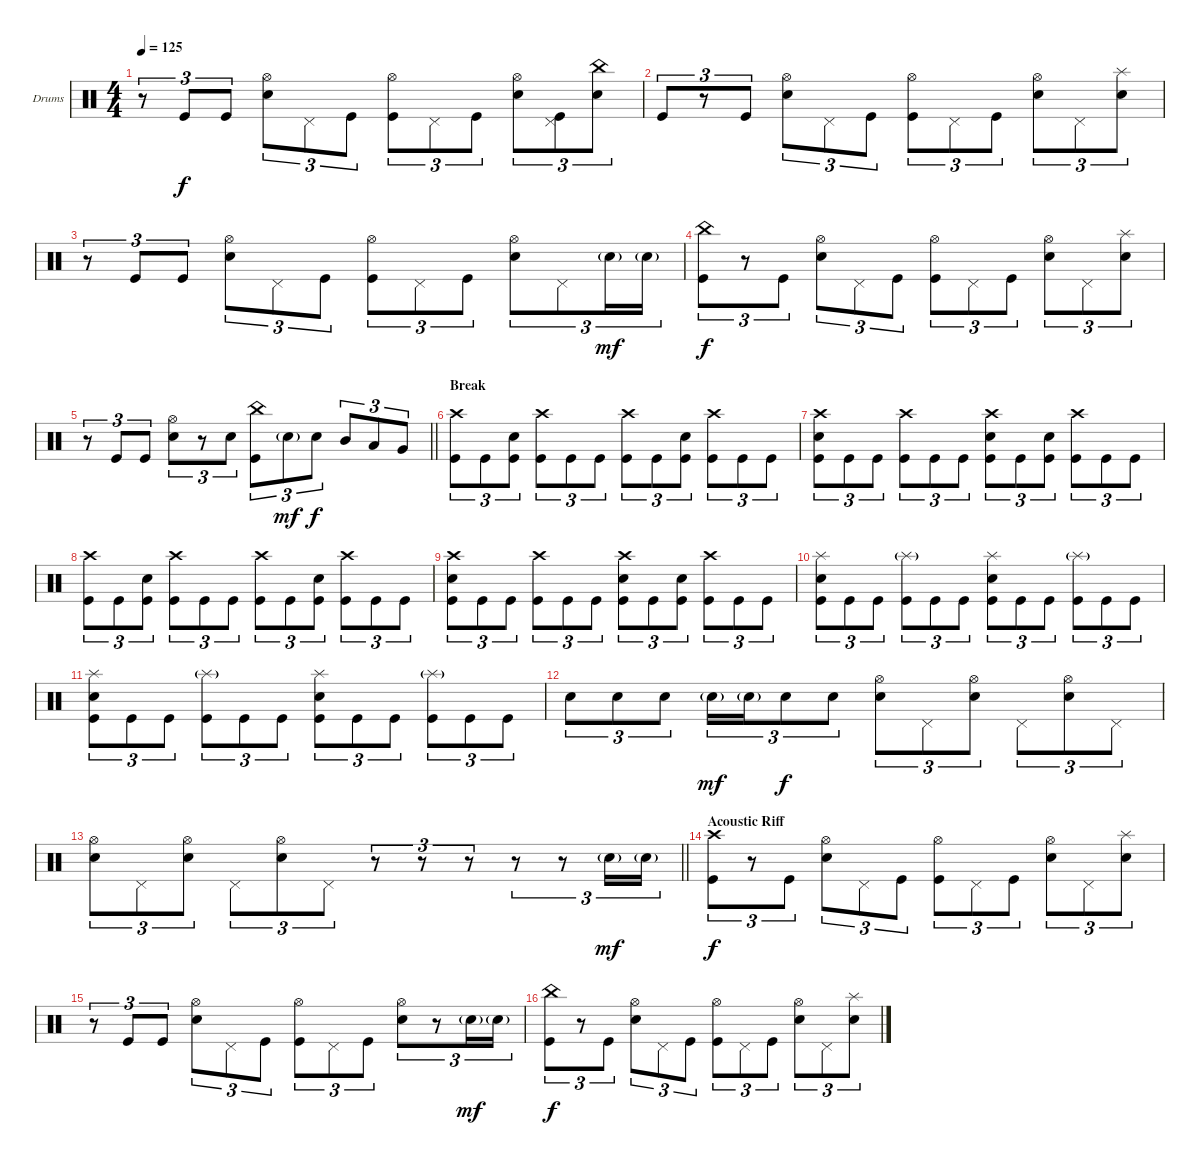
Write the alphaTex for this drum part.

\bracketExtendMode nobrackets
\firstSystemTrackNameOrientation horizontal
\otherSystemsTrackNameOrientation horizontal
\track ("Drumkit" "Drums") {instrument percussion}
\staff {score}
\articulation defaults
\ts (4 4)
\tempo 125
\clef neutral
\ks c
r.8{tu (3 2) dy f} "Kick (hit)".8{tu (3 2)} "Kick (hit)".8{tu (3 2)} ("Hi-Hat (open)" "Snare (hit) 2").8{tu (3 2)} "Pedal Hi-Hat (hit)".8{tu (3 2)} "Kick (hit)".8{tu (3 2)} ("Hi-Hat (open)" "Kick (hit)").8{tu (3 2)} "Pedal Hi-Hat (hit)".8{tu (3 2)} "Kick (hit)".8{tu (3 2)} ("Hi-Hat (open)" "Snare (hit) 2").8{tu (3 2)} ("Pedal Hi-Hat (hit)" "Kick (hit)").8{tu (3 2)} ("China (hit)" "Snare (hit) 2").8{tu (3 2)} |
"Kick (hit)".8{tu (3 2)} r.8{tu (3 2)} "Kick (hit)".8{tu (3 2)} ("Hi-Hat (open)" "Snare (hit) 2").8{tu (3 2)} "Pedal Hi-Hat (hit)".8{tu (3 2)} "Kick (hit)".8{tu (3 2)} ("Hi-Hat (open)" "Kick (hit)").8{tu (3 2)} "Pedal Hi-Hat (hit)".8{tu (3 2)} "Kick (hit)".8{tu (3 2)} ("Hi-Hat (open)" "Snare (hit) 2").8{tu (3 2)} "Pedal Hi-Hat (hit)".8{tu (3 2)} ("Splash (hit)" "Snare (hit) 2").8{tu (3 2)} |
r.8{tu (3 2)} "Kick (hit)".8{tu (3 2)} "Kick (hit)".8{tu (3 2)} ("Hi-Hat (open)" "Snare (hit) 2").8{tu (3 2)} "Pedal Hi-Hat (hit)".8{tu (3 2)} "Kick (hit)".8{tu (3 2)} ("Hi-Hat (open)" "Kick (hit)").8{tu (3 2)} "Pedal Hi-Hat (hit)".8{tu (3 2)} "Kick (hit)".8{tu (3 2)} ("Hi-Hat (open)" "Snare (hit) 2").8{tu (3 2)} "Pedal Hi-Hat (hit)".8{tu (3 2)} "Snare (hit) 2"{g}.16{tu (3 2) dy mf} "Snare (hit) 2"{g}.16{tu (3 2)} |
("China (hit)" "Kick (hit)").8{tu (3 2) dy f} r.8{tu (3 2)} "Kick (hit)".8{tu (3 2)} ("Hi-Hat (open)" "Snare (hit) 2").8{tu (3 2)} "Pedal Hi-Hat (hit)".8{tu (3 2)} "Kick (hit)".8{tu (3 2)} ("Hi-Hat (open)" "Kick (hit)").8{tu (3 2)} "Pedal Hi-Hat (hit)".8{tu (3 2)} "Kick (hit)".8{tu (3 2)} ("Hi-Hat (open)" "Snare (hit) 2").8{tu (3 2)} "Pedal Hi-Hat (hit)".8{tu (3 2)} ("Splash (hit)" "Snare (hit) 2").8{tu (3 2)} |
\barLineRight lightlight
r.8{tu (3 2)} "Kick (hit)".8{tu (3 2)} "Kick (hit)".8{tu (3 2)} ("Hi-Hat (open)" "Snare (hit) 2").8{tu (3 2)} r.8{tu (3 2)} "Snare (hit) 2".8{tu (3 2)} ("China (hit)" "Kick (hit)").8{tu (3 2)} "Snare (hit) 2"{g}.8{tu (3 2) dy mf} "Snare (hit) 2".8{tu (3 2) dy f} "Mid Tom (hit)".8{tu (3 2)} "Low Tom (hit)".8{tu (3 2)} "Very Low Tom (hit)".8{tu (3 2)} |
\section ("" "Break")
("Crash high (hit)" "Kick (hit)").8{tu (3 2)} "Kick (hit)".8{tu (3 2)} ("Snare (hit) 2" "Kick (hit)").8{tu (3 2)} ("Crash high (hit)" "Kick (hit)").8{tu (3 2)} "Kick (hit)".8{tu (3 2)} "Kick (hit)".8{tu (3 2)} ("Crash high (hit)" "Kick (hit)").8{tu (3 2)} "Kick (hit)".8{tu (3 2)} ("Snare (hit) 2" "Kick (hit)").8{tu (3 2)} ("Crash high (hit)" "Kick (hit)").8{tu (3 2)} "Kick (hit)".8{tu (3 2)} "Kick (hit)".8{tu (3 2)} |
("Crash high (hit)" "Snare (hit) 2" "Kick (hit)").8{tu (3 2)} "Kick (hit)".8{tu (3 2)} "Kick (hit)".8{tu (3 2)} ("Crash high (hit)" "Kick (hit)").8{tu (3 2)} "Kick (hit)".8{tu (3 2)} "Kick (hit)".8{tu (3 2)} ("Crash high (hit)" "Snare (hit) 2" "Kick (hit)").8{tu (3 2)} "Kick (hit)".8{tu (3 2)} ("Snare (hit) 2" "Kick (hit)").8{tu (3 2)} ("Crash high (hit)" "Kick (hit)").8{tu (3 2)} "Kick (hit)".8{tu (3 2)} "Kick (hit)".8{tu (3 2)} |
("Crash high (hit)" "Kick (hit)").8{tu (3 2)} "Kick (hit)".8{tu (3 2)} ("Snare (hit) 2" "Kick (hit)").8{tu (3 2)} ("Crash high (hit)" "Kick (hit)").8{tu (3 2)} "Kick (hit)".8{tu (3 2)} "Kick (hit)".8{tu (3 2)} ("Crash high (hit)" "Kick (hit)").8{tu (3 2)} "Kick (hit)".8{tu (3 2)} ("Snare (hit) 2" "Kick (hit)").8{tu (3 2)} ("Crash high (hit)" "Kick (hit)").8{tu (3 2)} "Kick (hit)".8{tu (3 2)} "Kick (hit)".8{tu (3 2)} |
("Crash high (hit)" "Snare (hit) 2" "Kick (hit)").8{tu (3 2)} "Kick (hit)".8{tu (3 2)} "Kick (hit)".8{tu (3 2)} ("Crash high (hit)" "Kick (hit)").8{tu (3 2)} "Kick (hit)".8{tu (3 2)} "Kick (hit)".8{tu (3 2)} ("Crash high (hit)" "Snare (hit) 2" "Kick (hit)").8{tu (3 2)} "Kick (hit)".8{tu (3 2)} ("Snare (hit) 2" "Kick (hit)").8{tu (3 2)} ("Crash high (hit)" "Kick (hit)").8{tu (3 2)} "Kick (hit)".8{tu (3 2)} "Kick (hit)".8{tu (3 2)} |
("Splash (hit)" "Snare (hit) 2" "Kick (hit)").8{tu (3 2)} "Kick (hit)".8{tu (3 2)} "Kick (hit)".8{tu (3 2)} ("Splash (hit)"{g} "Kick (hit)").8{tu (3 2)} "Kick (hit)".8{tu (3 2)} "Kick (hit)".8{tu (3 2)} ("Splash (hit)" "Snare (hit) 2" "Kick (hit)").8{tu (3 2)} "Kick (hit)".8{tu (3 2)} "Kick (hit)".8{tu (3 2)} ("Splash (hit)"{g} "Kick (hit)").8{tu (3 2)} "Kick (hit)".8{tu (3 2)} "Kick (hit)".8{tu (3 2)} |
("Splash (hit)" "Snare (hit) 2" "Kick (hit)").8{tu (3 2)} "Kick (hit)".8{tu (3 2)} "Kick (hit)".8{tu (3 2)} ("Splash (hit)"{g} "Kick (hit)").8{tu (3 2)} "Kick (hit)".8{tu (3 2)} "Kick (hit)".8{tu (3 2)} ("Splash (hit)" "Snare (hit) 2" "Kick (hit)").8{tu (3 2)} "Kick (hit)".8{tu (3 2)} "Kick (hit)".8{tu (3 2)} ("Splash (hit)"{g} "Kick (hit)").8{tu (3 2)} "Kick (hit)".8{tu (3 2)} "Kick (hit)".8{tu (3 2)} |
"Snare (hit) 2".8{tu (3 2)} "Snare (hit) 2".8{tu (3 2)} "Snare (hit) 2".8{tu (3 2)} "Snare (hit) 2"{g}.16{tu (3 2) dy mf} "Snare (hit) 2"{g}.16{tu (3 2)} "Snare (hit) 2".8{tu (3 2) dy f} "Snare (hit) 2".8{tu (3 2)} ("Hi-Hat (open)" "Snare (hit) 2").8{tu (3 2)} "Pedal Hi-Hat (hit)".8{tu (3 2)} ("Hi-Hat (open)" "Snare (hit) 2").8{tu (3 2)} "Pedal Hi-Hat (hit)".8{tu (3 2)} ("Hi-Hat (open)" "Snare (hit) 2").8{tu (3 2)} "Pedal Hi-Hat (hit)".8{tu (3 2)} |
\barLineRight lightlight
("Hi-Hat (open)" "Snare (hit) 2").8{tu (3 2)} "Pedal Hi-Hat (hit)".8{tu (3 2)} ("Hi-Hat (open)" "Snare (hit) 2").8{tu (3 2)} "Pedal Hi-Hat (hit)".8{tu (3 2)} ("Hi-Hat (open)" "Snare (hit) 2").8{tu (3 2)} "Pedal Hi-Hat (hit)".8{tu (3 2)} r.8{tu (3 2)} r.8{tu (3 2)} r.8{tu (3 2)} r.8{tu (3 2)} r.8{tu (3 2)} "Snare (hit) 2"{g}.16{tu (3 2) dy mf} "Snare (hit) 2"{g}.16{tu (3 2)} |
\section ("" "Acoustic Riff")
("Crash high (hit)" "Kick (hit)").8{tu (3 2) dy f} r.8{tu (3 2)} "Kick (hit)".8{tu (3 2)} ("Hi-Hat (open)" "Snare (hit) 2").8{tu (3 2)} "Pedal Hi-Hat (hit)".8{tu (3 2)} "Kick (hit)".8{tu (3 2)} ("Hi-Hat (open)" "Kick (hit)").8{tu (3 2)} "Pedal Hi-Hat (hit)".8{tu (3 2)} "Kick (hit)".8{tu (3 2)} ("Hi-Hat (open)" "Snare (hit) 2").8{tu (3 2)} "Pedal Hi-Hat (hit)".8{tu (3 2)} ("Splash (hit)" "Snare (hit) 2").8{tu (3 2)} |
r.8{tu (3 2)} "Kick (hit)".8{tu (3 2)} "Kick (hit)".8{tu (3 2)} ("Hi-Hat (open)" "Snare (hit) 2").8{tu (3 2)} "Pedal Hi-Hat (hit)".8{tu (3 2)} "Kick (hit)".8{tu (3 2)} ("Hi-Hat (open)" "Kick (hit)").8{tu (3 2)} "Pedal Hi-Hat (hit)".8{tu (3 2)} "Kick (hit)".8{tu (3 2)} ("Hi-Hat (open)" "Snare (hit) 2").8{tu (3 2)} r.8{tu (3 2)} "Snare (hit) 2"{g}.16{tu (3 2) dy mf} "Snare (hit) 2"{g}.16{tu (3 2)} |
("China (hit)" "Kick (hit)").8{tu (3 2) dy f} r.8{tu (3 2)} "Kick (hit)".8{tu (3 2)} ("Hi-Hat (open)" "Snare (hit) 2").8{tu (3 2)} "Pedal Hi-Hat (hit)".8{tu (3 2)} "Kick (hit)".8{tu (3 2)} ("Hi-Hat (open)" "Kick (hit)").8{tu (3 2)} "Pedal Hi-Hat (hit)".8{tu (3 2)} "Kick (hit)".8{tu (3 2)} ("Hi-Hat (open)" "Snare (hit) 2").8{tu (3 2)} "Pedal Hi-Hat (hit)".8{tu (3 2)} ("Splash (hit)" "Snare (hit) 2").8{tu (3 2)}
